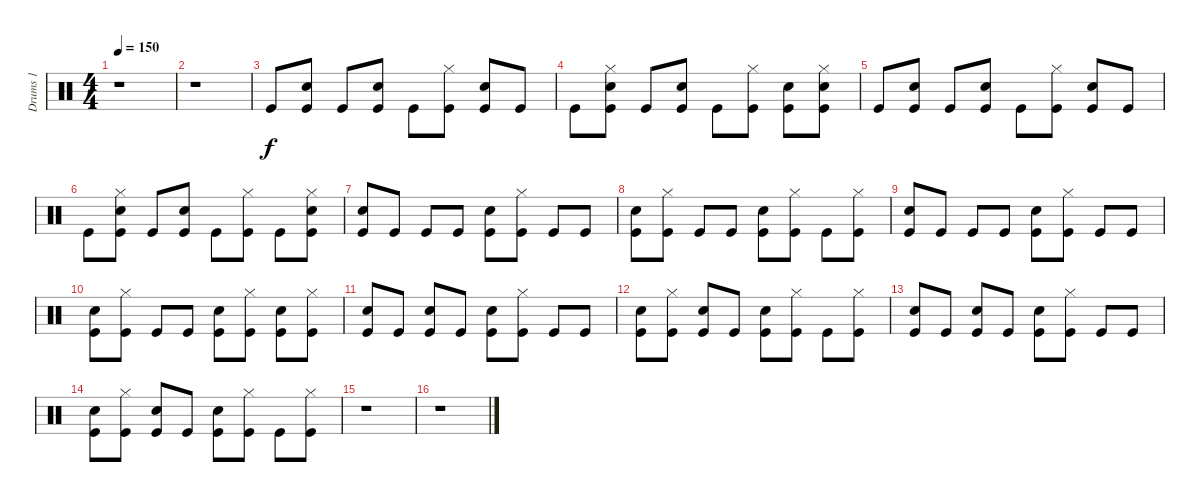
\track ("Drums 1" "Drums 1") {instrument percussion}
\staff {score}
\articulation defaults
\ts (4 4)
\tempo 150
\clef neutral
\ks c
r.1{dy f} |
r.1 |
"Kick (hit)".8 ("Snare (hit) 2" "Kick (hit)").8 "Kick (hit)".8 ("Snare (hit) 2" "Kick (hit)").8 "Kick (hit)".8 ("Hi-Hat (closed)" "Kick (hit)").8 ("Snare (hit) 2" "Kick (hit)").8 "Kick (hit)".8 |
"Kick (hit)".8 ("Snare (hit) 2" "Hi-Hat (closed)" "Kick (hit)").8 "Kick (hit)".8 ("Snare (hit) 2" "Kick (hit)").8 "Kick (hit)".8 ("Hi-Hat (closed)" "Kick (hit)").8 ("Snare (hit) 2" "Kick (hit)").8 ("Snare (hit) 2" "Hi-Hat (closed)" "Kick (hit)").8 |
"Kick (hit)".8 ("Snare (hit) 2" "Kick (hit)").8 "Kick (hit)".8 ("Snare (hit) 2" "Kick (hit)").8 "Kick (hit)".8 ("Hi-Hat (closed)" "Kick (hit)").8 ("Snare (hit) 2" "Kick (hit)").8 "Kick (hit)".8 |
"Kick (hit)".8 ("Snare (hit) 2" "Hi-Hat (closed)" "Kick (hit)").8 "Kick (hit)".8 ("Snare (hit) 2" "Kick (hit)").8 "Kick (hit)".8 ("Hi-Hat (closed)" "Kick (hit)").8 "Kick (hit)".8 ("Snare (hit) 2" "Hi-Hat (closed)" "Kick (hit)").8 |
("Snare (hit) 2" "Kick (hit)").8 "Kick (hit)".8 "Kick (hit)".8 "Kick (hit)".8 ("Snare (hit) 2" "Kick (hit)").8 ("Hi-Hat (closed)" "Kick (hit)").8 "Kick (hit)".8 "Kick (hit)".8 |
("Snare (hit) 2" "Kick (hit)").8 ("Hi-Hat (closed)" "Kick (hit)").8 "Kick (hit)".8 "Kick (hit)".8 ("Snare (hit) 2" "Kick (hit)").8 ("Hi-Hat (closed)" "Kick (hit)").8 "Kick (hit)".8 ("Hi-Hat (closed)" "Kick (hit)").8 |
("Snare (hit) 2" "Kick (hit)").8 "Kick (hit)".8 "Kick (hit)".8 "Kick (hit)".8 ("Snare (hit) 2" "Kick (hit)").8 ("Hi-Hat (closed)" "Kick (hit)").8 "Kick (hit)".8 "Kick (hit)".8 |
("Snare (hit) 2" "Kick (hit)").8 ("Hi-Hat (closed)" "Kick (hit)").8 "Kick (hit)".8 "Kick (hit)".8 ("Snare (hit) 2" "Kick (hit)").8 ("Hi-Hat (closed)" "Kick (hit)").8 ("Snare (hit) 2" "Kick (hit)").8 ("Hi-Hat (closed)" "Kick (hit)").8 |
("Snare (hit) 2" "Kick (hit)").8 "Kick (hit)".8 ("Snare (hit) 2" "Kick (hit)").8 "Kick (hit)".8 ("Snare (hit) 2" "Kick (hit)").8 ("Hi-Hat (closed)" "Kick (hit)").8 "Kick (hit)".8 "Kick (hit)".8 |
("Snare (hit) 2" "Kick (hit)").8 ("Hi-Hat (closed)" "Kick (hit)").8 ("Snare (hit) 2" "Kick (hit)").8 "Kick (hit)".8 ("Snare (hit) 2" "Kick (hit)").8 ("Hi-Hat (closed)" "Kick (hit)").8 "Kick (hit)".8 ("Hi-Hat (closed)" "Kick (hit)").8 |
("Snare (hit) 2" "Kick (hit)").8 "Kick (hit)".8 ("Snare (hit) 2" "Kick (hit)").8 "Kick (hit)".8 ("Snare (hit) 2" "Kick (hit)").8 ("Hi-Hat (closed)" "Kick (hit)").8 "Kick (hit)".8 "Kick (hit)".8 |
("Snare (hit) 2" "Kick (hit)").8 ("Hi-Hat (closed)" "Kick (hit)").8 ("Snare (hit) 2" "Kick (hit)").8 "Kick (hit)".8 ("Snare (hit) 2" "Kick (hit)").8 ("Hi-Hat (closed)" "Kick (hit)").8 "Kick (hit)".8 ("Hi-Hat (closed)" "Kick (hit)").8 |
r.1 |
r.1
